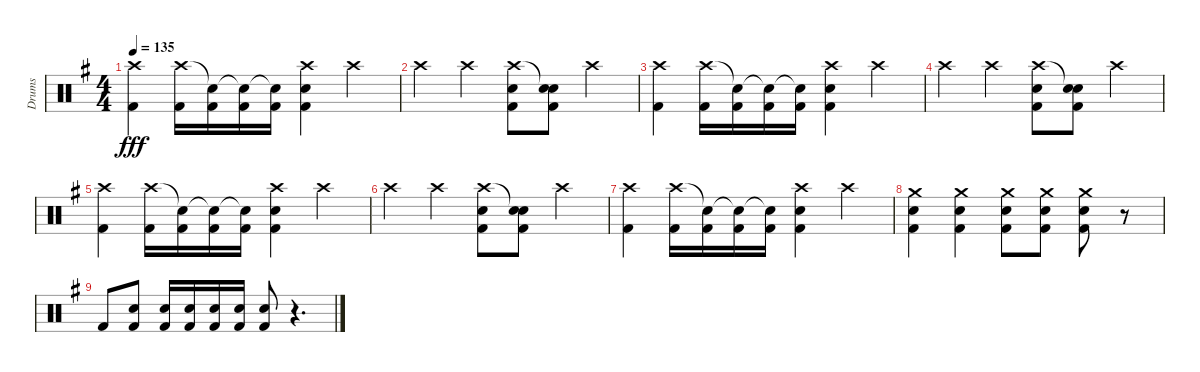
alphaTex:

\track ("Drums" "Drums") {instrument percussion}
\staff {score}
\articulation defaults
\ts (4 4)
\tempo 135
\clef neutral
\ks eminor
("Crash high (hit)" "Kick (hit) 2").4{dy fff} ("Crash high (hit)" "Kick (hit) 2").16 ("Snare (hit)"{t} "Kick (hit) 2").16 ("Snare (hit)"{t} "Kick (hit) 2").16 ("Snare (hit)"{t} "Kick (hit) 2").16 ("Crash high (hit)" "Electric Snare (hit)" "Kick (hit) 2").4 "Crash high (hit)".4 |
"Crash high (hit)".4 "Crash high (hit)".4 ("Crash high (hit)" "Electric Snare (hit)" "Kick (hit) 2").8 ("Snare (hit)"{t} "Electric Snare (hit)" "Kick (hit) 2").8 "Crash high (hit)".4 |
("Crash high (hit)" "Kick (hit) 2").4 ("Crash high (hit)" "Kick (hit) 2").16 ("Snare (hit)"{t} "Kick (hit) 2").16 ("Snare (hit)"{t} "Kick (hit) 2").16 ("Snare (hit)"{t} "Kick (hit) 2").16 ("Crash high (hit)" "Electric Snare (hit)" "Kick (hit) 2").4 "Crash high (hit)".4 |
"Crash high (hit)".4 "Crash high (hit)".4 ("Crash high (hit)" "Electric Snare (hit)" "Kick (hit) 2").8 ("Snare (hit)"{t} "Electric Snare (hit)" "Kick (hit) 2").8 "Crash high (hit)".4 |
("Crash high (hit)" "Kick (hit) 2").4 ("Crash high (hit)" "Kick (hit) 2").16 ("Snare (hit)"{t} "Kick (hit) 2").16 ("Snare (hit)"{t} "Kick (hit) 2").16 ("Snare (hit)"{t} "Kick (hit) 2").16 ("Crash high (hit)" "Electric Snare (hit)" "Kick (hit) 2").4 "Crash high (hit)".4 |
"Crash high (hit)".4 "Crash high (hit)".4 ("Crash high (hit)" "Electric Snare (hit)" "Kick (hit) 2").8 ("Snare (hit)"{t} "Electric Snare (hit)" "Kick (hit) 2").8 "Crash high (hit)".4 |
("Crash high (hit)" "Kick (hit) 2").4 ("Crash high (hit)" "Kick (hit) 2").16 ("Snare (hit)"{t} "Kick (hit) 2").16 ("Snare (hit)"{t} "Kick (hit) 2").16 ("Snare (hit)"{t} "Kick (hit) 2").16 ("Crash high (hit)" "Electric Snare (hit)" "Kick (hit) 2").4 "Crash high (hit)".4 |
("Crash medium (hit)" "Electric Snare (hit)" "Kick (hit) 2").4 ("Crash medium (hit)" "Electric Snare (hit)" "Kick (hit) 2").4 ("Crash medium (hit)" "Electric Snare (hit)" "Kick (hit) 2").8 ("Crash medium (hit)" "Electric Snare (hit)" "Kick (hit) 2").8 ("Crash medium (hit)" "Electric Snare (hit)" "Kick (hit) 2").8 r.8 |
"Kick (hit) 2".8 ("Electric Snare (hit)" "Kick (hit) 2").8 ("Electric Snare (hit)" "Kick (hit) 2").16 ("Electric Snare (hit)" "Kick (hit) 2").16 ("Electric Snare (hit)" "Kick (hit) 2").16 ("Electric Snare (hit)" "Kick (hit) 2").16 ("Electric Snare (hit)" "Kick (hit) 2").8 r.4{d}
